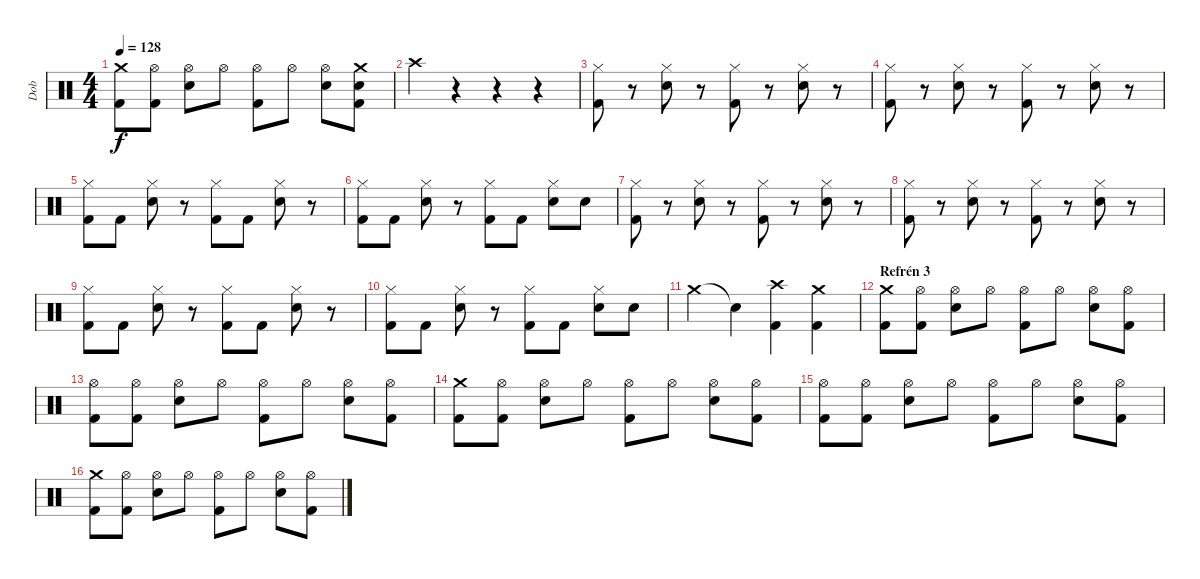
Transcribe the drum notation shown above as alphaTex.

\track ("Dob" "Dob") {instrument percussion}
\staff {score}
\articulation defaults
\ts (4 4)
\tempo 128
\clef neutral
\ks c
("Crash medium (hit)" "Kick (hit) 2").8{dy f} ("Hi-Hat (open)" "Kick (hit) 2").8 ("Hi-Hat (open)" "Snare (hit) 2").8 "Hi-Hat (open)".8 ("Hi-Hat (open)" "Kick (hit) 2").8 "Hi-Hat (open)".8 ("Hi-Hat (open)" "Snare (hit) 2").8 ("Crash medium (hit)" "Snare (hit) 2" "Kick (hit) 2").8 |
"Crash high (hit)".4 r.4 r.4 r.4 |
("Hi-Hat (closed)" "Kick (hit) 2").8 r.8 ("Hi-Hat (closed)" "Snare (hit) 2").8 r.8 ("Hi-Hat (closed)" "Kick (hit) 2").8 r.8 ("Hi-Hat (closed)" "Snare (hit) 2").8 r.8 |
("Hi-Hat (closed)" "Kick (hit) 2").8 r.8 ("Hi-Hat (closed)" "Snare (hit) 2").8 r.8 ("Hi-Hat (closed)" "Kick (hit) 2").8 r.8 ("Hi-Hat (closed)" "Snare (hit) 2").8 r.8 |
("Hi-Hat (closed)" "Kick (hit) 2").8 "Kick (hit) 2".8 ("Hi-Hat (closed)" "Snare (hit) 2").8 r.8 ("Hi-Hat (closed)" "Kick (hit) 2").8 "Kick (hit) 2".8 ("Hi-Hat (closed)" "Snare (hit) 2").8 r.8 |
("Hi-Hat (closed)" "Kick (hit) 2").8 "Kick (hit) 2".8 ("Hi-Hat (closed)" "Snare (hit) 2").8 r.8 ("Hi-Hat (closed)" "Kick (hit) 2").8 "Kick (hit) 2".8 ("Hi-Hat (closed)" "Snare (hit) 2").8 "Snare (hit) 2".8 |
("Hi-Hat (closed)" "Kick (hit) 2").8 r.8 ("Hi-Hat (closed)" "Snare (hit) 2").8 r.8 ("Hi-Hat (closed)" "Kick (hit) 2").8 r.8 ("Hi-Hat (closed)" "Snare (hit) 2").8 r.8 |
("Hi-Hat (closed)" "Kick (hit) 2").8 r.8 ("Hi-Hat (closed)" "Snare (hit) 2").8 r.8 ("Hi-Hat (closed)" "Kick (hit) 2").8 r.8 ("Hi-Hat (closed)" "Snare (hit) 2").8 r.8 |
("Hi-Hat (closed)" "Kick (hit) 2").8 "Kick (hit) 2".8 ("Hi-Hat (closed)" "Snare (hit) 2").8 r.8 ("Hi-Hat (closed)" "Kick (hit) 2").8 "Kick (hit) 2".8 ("Hi-Hat (closed)" "Snare (hit) 2").8 r.8 |
("Hi-Hat (closed)" "Kick (hit) 2").8 "Kick (hit) 2".8 ("Hi-Hat (closed)" "Snare (hit) 2").8 r.8 ("Hi-Hat (closed)" "Kick (hit) 2").8 "Kick (hit) 2".8 ("Hi-Hat (closed)" "Snare (hit) 2").8 "Snare (hit) 2".8 |
"Crash medium (hit)".4 "Snare (hit)"{t}.4 ("Crash high (hit)" "Kick (hit) 2").4 ("Crash medium (hit)" "Kick (hit) 2").4 |
\section ("" "Refrén 3")
("Crash medium (hit)" "Kick (hit) 2").8 ("Hi-Hat (open)" "Kick (hit) 2").8 ("Hi-Hat (open)" "Snare (hit) 2").8 "Hi-Hat (open)".8 ("Hi-Hat (open)" "Kick (hit) 2").8 "Hi-Hat (open)".8 ("Hi-Hat (open)" "Snare (hit) 2").8 ("Hi-Hat (open)" "Kick (hit) 2").8 |
("Hi-Hat (open)" "Kick (hit) 2").8 ("Hi-Hat (open)" "Kick (hit) 2").8 ("Hi-Hat (open)" "Snare (hit) 2").8 "Hi-Hat (open)".8 ("Hi-Hat (open)" "Kick (hit) 2").8 "Hi-Hat (open)".8 ("Hi-Hat (open)" "Snare (hit) 2").8 ("Hi-Hat (open)" "Kick (hit) 2").8 |
("Crash medium (hit)" "Kick (hit) 2").8 ("Hi-Hat (open)" "Kick (hit) 2").8 ("Hi-Hat (open)" "Snare (hit) 2").8 "Hi-Hat (open)".8 ("Hi-Hat (open)" "Kick (hit) 2").8 "Hi-Hat (open)".8 ("Hi-Hat (open)" "Snare (hit) 2").8 ("Hi-Hat (open)" "Kick (hit) 2").8 |
("Hi-Hat (open)" "Kick (hit) 2").8 ("Hi-Hat (open)" "Kick (hit) 2").8 ("Hi-Hat (open)" "Snare (hit) 2").8 "Hi-Hat (open)".8 ("Hi-Hat (open)" "Kick (hit) 2").8 "Hi-Hat (open)".8 ("Hi-Hat (open)" "Snare (hit) 2").8 ("Hi-Hat (open)" "Kick (hit) 2").8 |
("Crash medium (hit)" "Kick (hit) 2").8 ("Hi-Hat (open)" "Kick (hit) 2").8 ("Hi-Hat (open)" "Snare (hit) 2").8 "Hi-Hat (open)".8 ("Hi-Hat (open)" "Kick (hit) 2").8 "Hi-Hat (open)".8 ("Hi-Hat (open)" "Snare (hit) 2").8 ("Hi-Hat (open)" "Kick (hit) 2").8
